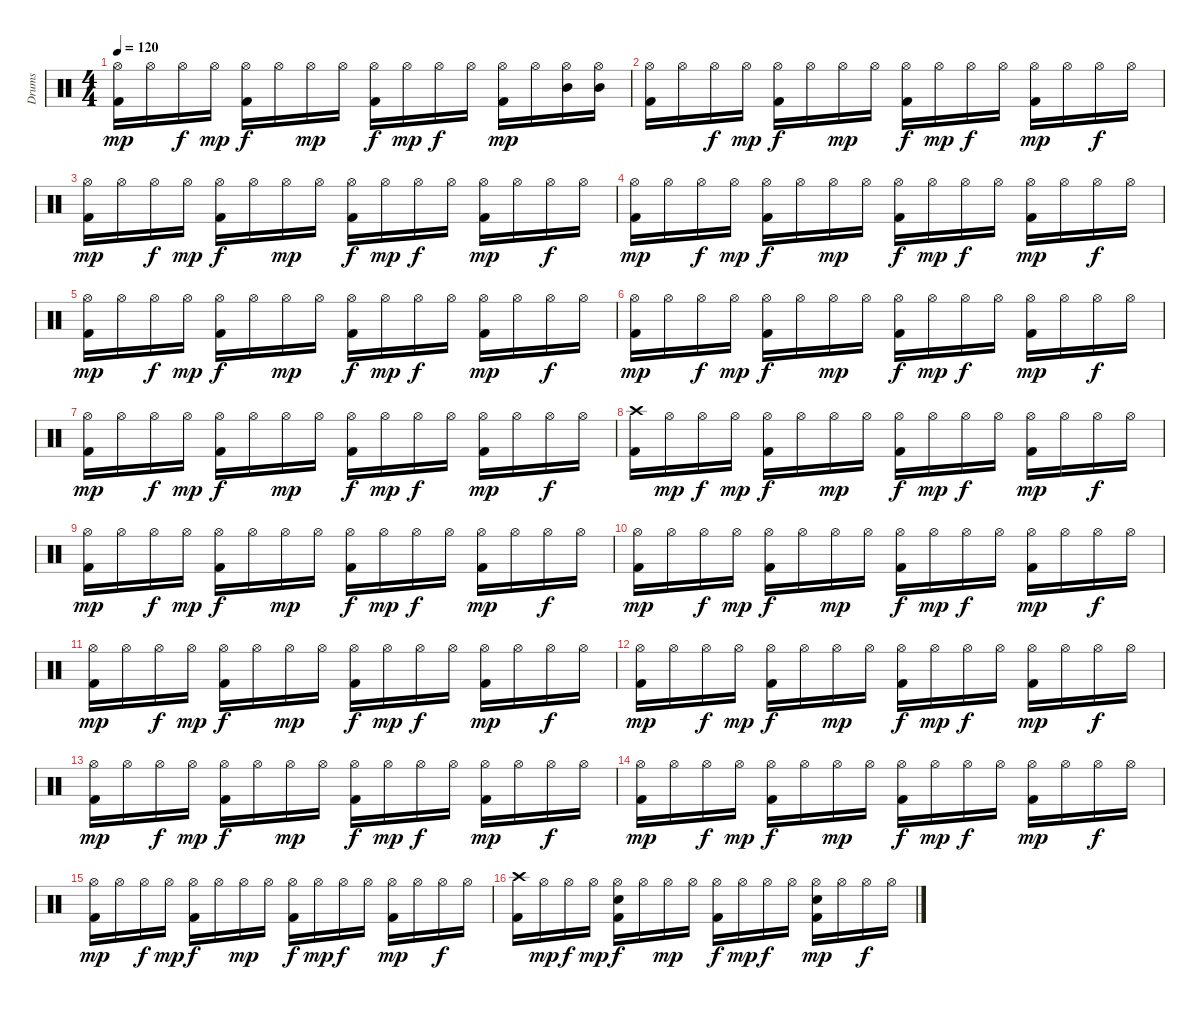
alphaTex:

\track ("Drums" "Drums") {instrument percussion}
\staff {score}
\articulation defaults
\ts (4 4)
\tempo 120
\clef neutral
\ks c
("Hi-Hat (open)" "Kick (hit) 2").16{dy mp} "Hi-Hat (open)".16 "Hi-Hat (open)".16{dy f} "Hi-Hat (open)".16{dy mp} ("Hi-Hat (open)" "Kick (hit) 2").16{dy f} "Hi-Hat (open)".16 "Hi-Hat (open)".16{dy mp} "Hi-Hat (open)".16 ("Hi-Hat (open)" "Kick (hit) 2").16{dy f} "Hi-Hat (open)".16{dy mp} "Hi-Hat (open)".16{dy f} "Hi-Hat (open)".16 ("Hi-Hat (open)" "Kick (hit) 2").16{dy mp} "Hi-Hat (open)".16 ("Hi-Hat (open)" "Mid Tom (hit)").16 ("Hi-Hat (open)" "Mid Tom (hit)").16 |
("Hi-Hat (open)" "Kick (hit) 2").16 "Hi-Hat (open)".16 "Hi-Hat (open)".16{dy f} "Hi-Hat (open)".16{dy mp} ("Hi-Hat (open)" "Kick (hit) 2").16{dy f} "Hi-Hat (open)".16 "Hi-Hat (open)".16{dy mp} "Hi-Hat (open)".16 ("Hi-Hat (open)" "Kick (hit) 2").16{dy f} "Hi-Hat (open)".16{dy mp} "Hi-Hat (open)".16{dy f} "Hi-Hat (open)".16 ("Hi-Hat (open)" "Kick (hit) 2").16{dy mp} "Hi-Hat (open)".16 "Hi-Hat (open)".16{dy f} "Hi-Hat (open)".16 |
("Hi-Hat (open)" "Kick (hit) 2").16{dy mp} "Hi-Hat (open)".16 "Hi-Hat (open)".16{dy f} "Hi-Hat (open)".16{dy mp} ("Hi-Hat (open)" "Kick (hit) 2").16{dy f} "Hi-Hat (open)".16 "Hi-Hat (open)".16{dy mp} "Hi-Hat (open)".16 ("Hi-Hat (open)" "Kick (hit) 2").16{dy f} "Hi-Hat (open)".16{dy mp} "Hi-Hat (open)".16{dy f} "Hi-Hat (open)".16 ("Hi-Hat (open)" "Kick (hit) 2").16{dy mp} "Hi-Hat (open)".16 "Hi-Hat (open)".16{dy f} "Hi-Hat (open)".16 |
("Hi-Hat (open)" "Kick (hit) 2").16{dy mp} "Hi-Hat (open)".16 "Hi-Hat (open)".16{dy f} "Hi-Hat (open)".16{dy mp} ("Hi-Hat (open)" "Kick (hit) 2").16{dy f} "Hi-Hat (open)".16 "Hi-Hat (open)".16{dy mp} "Hi-Hat (open)".16 ("Hi-Hat (open)" "Kick (hit) 2").16{dy f} "Hi-Hat (open)".16{dy mp} "Hi-Hat (open)".16{dy f} "Hi-Hat (open)".16 ("Hi-Hat (open)" "Kick (hit) 2").16{dy mp} "Hi-Hat (open)".16 "Hi-Hat (open)".16{dy f} "Hi-Hat (open)".16 |
("Hi-Hat (open)" "Kick (hit) 2").16{dy mp} "Hi-Hat (open)".16 "Hi-Hat (open)".16{dy f} "Hi-Hat (open)".16{dy mp} ("Hi-Hat (open)" "Kick (hit) 2").16{dy f} "Hi-Hat (open)".16 "Hi-Hat (open)".16{dy mp} "Hi-Hat (open)".16 ("Hi-Hat (open)" "Kick (hit) 2").16{dy f} "Hi-Hat (open)".16{dy mp} "Hi-Hat (open)".16{dy f} "Hi-Hat (open)".16 ("Hi-Hat (open)" "Kick (hit) 2").16{dy mp} "Hi-Hat (open)".16 "Hi-Hat (open)".16{dy f} "Hi-Hat (open)".16 |
("Hi-Hat (open)" "Kick (hit) 2").16{dy mp} "Hi-Hat (open)".16 "Hi-Hat (open)".16{dy f} "Hi-Hat (open)".16{dy mp} ("Hi-Hat (open)" "Kick (hit) 2").16{dy f} "Hi-Hat (open)".16 "Hi-Hat (open)".16{dy mp} "Hi-Hat (open)".16 ("Hi-Hat (open)" "Kick (hit) 2").16{dy f} "Hi-Hat (open)".16{dy mp} "Hi-Hat (open)".16{dy f} "Hi-Hat (open)".16 ("Hi-Hat (open)" "Kick (hit) 2").16{dy mp} "Hi-Hat (open)".16 "Hi-Hat (open)".16{dy f} "Hi-Hat (open)".16 |
("Hi-Hat (open)" "Kick (hit) 2").16{dy mp} "Hi-Hat (open)".16 "Hi-Hat (open)".16{dy f} "Hi-Hat (open)".16{dy mp} ("Hi-Hat (open)" "Kick (hit) 2").16{dy f} "Hi-Hat (open)".16 "Hi-Hat (open)".16{dy mp} "Hi-Hat (open)".16 ("Hi-Hat (open)" "Kick (hit) 2").16{dy f} "Hi-Hat (open)".16{dy mp} "Hi-Hat (open)".16{dy f} "Hi-Hat (open)".16 ("Hi-Hat (open)" "Kick (hit) 2").16{dy mp} "Hi-Hat (open)".16 "Hi-Hat (open)".16{dy f} "Hi-Hat (open)".16 |
("Crash high (hit)" "Kick (hit) 2").16 "Hi-Hat (open)".16{dy mp} "Hi-Hat (open)".16{dy f} "Hi-Hat (open)".16{dy mp} ("Hi-Hat (open)" "Kick (hit) 2").16{dy f} "Hi-Hat (open)".16 "Hi-Hat (open)".16{dy mp} "Hi-Hat (open)".16 ("Hi-Hat (open)" "Kick (hit) 2").16{dy f} "Hi-Hat (open)".16{dy mp} "Hi-Hat (open)".16{dy f} "Hi-Hat (open)".16 ("Hi-Hat (open)" "Kick (hit) 2").16{dy mp} "Hi-Hat (open)".16 "Hi-Hat (open)".16{dy f} "Hi-Hat (open)".16 |
("Hi-Hat (open)" "Kick (hit) 2").16{dy mp} "Hi-Hat (open)".16 "Hi-Hat (open)".16{dy f} "Hi-Hat (open)".16{dy mp} ("Hi-Hat (open)" "Kick (hit) 2").16{dy f} "Hi-Hat (open)".16 "Hi-Hat (open)".16{dy mp} "Hi-Hat (open)".16 ("Hi-Hat (open)" "Kick (hit) 2").16{dy f} "Hi-Hat (open)".16{dy mp} "Hi-Hat (open)".16{dy f} "Hi-Hat (open)".16 ("Hi-Hat (open)" "Kick (hit) 2").16{dy mp} "Hi-Hat (open)".16 "Hi-Hat (open)".16{dy f} "Hi-Hat (open)".16 |
("Hi-Hat (open)" "Kick (hit) 2").16{dy mp} "Hi-Hat (open)".16 "Hi-Hat (open)".16{dy f} "Hi-Hat (open)".16{dy mp} ("Hi-Hat (open)" "Kick (hit) 2").16{dy f} "Hi-Hat (open)".16 "Hi-Hat (open)".16{dy mp} "Hi-Hat (open)".16 ("Hi-Hat (open)" "Kick (hit) 2").16{dy f} "Hi-Hat (open)".16{dy mp} "Hi-Hat (open)".16{dy f} "Hi-Hat (open)".16 ("Hi-Hat (open)" "Kick (hit) 2").16{dy mp} "Hi-Hat (open)".16 "Hi-Hat (open)".16{dy f} "Hi-Hat (open)".16 |
("Hi-Hat (open)" "Kick (hit) 2").16{dy mp} "Hi-Hat (open)".16 "Hi-Hat (open)".16{dy f} "Hi-Hat (open)".16{dy mp} ("Hi-Hat (open)" "Kick (hit) 2").16{dy f} "Hi-Hat (open)".16 "Hi-Hat (open)".16{dy mp} "Hi-Hat (open)".16 ("Hi-Hat (open)" "Kick (hit) 2").16{dy f} "Hi-Hat (open)".16{dy mp} "Hi-Hat (open)".16{dy f} "Hi-Hat (open)".16 ("Hi-Hat (open)" "Kick (hit) 2").16{dy mp} "Hi-Hat (open)".16 "Hi-Hat (open)".16{dy f} "Hi-Hat (open)".16 |
("Hi-Hat (open)" "Kick (hit) 2").16{dy mp} "Hi-Hat (open)".16 "Hi-Hat (open)".16{dy f} "Hi-Hat (open)".16{dy mp} ("Hi-Hat (open)" "Kick (hit) 2").16{dy f} "Hi-Hat (open)".16 "Hi-Hat (open)".16{dy mp} "Hi-Hat (open)".16 ("Hi-Hat (open)" "Kick (hit) 2").16{dy f} "Hi-Hat (open)".16{dy mp} "Hi-Hat (open)".16{dy f} "Hi-Hat (open)".16 ("Hi-Hat (open)" "Kick (hit) 2").16{dy mp} "Hi-Hat (open)".16 "Hi-Hat (open)".16{dy f} "Hi-Hat (open)".16 |
("Hi-Hat (open)" "Kick (hit) 2").16{dy mp} "Hi-Hat (open)".16 "Hi-Hat (open)".16{dy f} "Hi-Hat (open)".16{dy mp} ("Hi-Hat (open)" "Kick (hit) 2").16{dy f} "Hi-Hat (open)".16 "Hi-Hat (open)".16{dy mp} "Hi-Hat (open)".16 ("Hi-Hat (open)" "Kick (hit) 2").16{dy f} "Hi-Hat (open)".16{dy mp} "Hi-Hat (open)".16{dy f} "Hi-Hat (open)".16 ("Hi-Hat (open)" "Kick (hit) 2").16{dy mp} "Hi-Hat (open)".16 "Hi-Hat (open)".16{dy f} "Hi-Hat (open)".16 |
("Hi-Hat (open)" "Kick (hit) 2").16{dy mp} "Hi-Hat (open)".16 "Hi-Hat (open)".16{dy f} "Hi-Hat (open)".16{dy mp} ("Hi-Hat (open)" "Kick (hit) 2").16{dy f} "Hi-Hat (open)".16 "Hi-Hat (open)".16{dy mp} "Hi-Hat (open)".16 ("Hi-Hat (open)" "Kick (hit) 2").16{dy f} "Hi-Hat (open)".16{dy mp} "Hi-Hat (open)".16{dy f} "Hi-Hat (open)".16 ("Hi-Hat (open)" "Kick (hit) 2").16{dy mp} "Hi-Hat (open)".16 "Hi-Hat (open)".16{dy f} "Hi-Hat (open)".16 |
("Hi-Hat (open)" "Kick (hit) 2").16{dy mp} "Hi-Hat (open)".16 "Hi-Hat (open)".16{dy f} "Hi-Hat (open)".16{dy mp} ("Hi-Hat (open)" "Kick (hit) 2").16{dy f} "Hi-Hat (open)".16 "Hi-Hat (open)".16{dy mp} "Hi-Hat (open)".16 ("Hi-Hat (open)" "Kick (hit) 2").16{dy f} "Hi-Hat (open)".16{dy mp} "Hi-Hat (open)".16{dy f} "Hi-Hat (open)".16 ("Hi-Hat (open)" "Kick (hit) 2").16{dy mp} "Hi-Hat (open)".16 "Hi-Hat (open)".16{dy f} "Hi-Hat (open)".16 |
("Crash high (hit)" "Kick (hit) 2").16 "Hi-Hat (open)".16{dy mp} "Hi-Hat (open)".16{dy f} "Hi-Hat (open)".16{dy mp} ("Hi-Hat (open)" "Snare (hit) 2" "Kick (hit) 2").16{dy f} "Hi-Hat (open)".16 "Hi-Hat (open)".16{dy mp} "Hi-Hat (open)".16 ("Hi-Hat (open)" "Kick (hit) 2").16{dy f} "Hi-Hat (open)".16{dy mp} "Hi-Hat (open)".16{dy f} "Hi-Hat (open)".16 ("Hi-Hat (open)" "Snare (hit) 2" "Kick (hit) 2").16{dy mp} "Hi-Hat (open)".16 "Hi-Hat (open)".16{dy f} "Hi-Hat (open)".16
